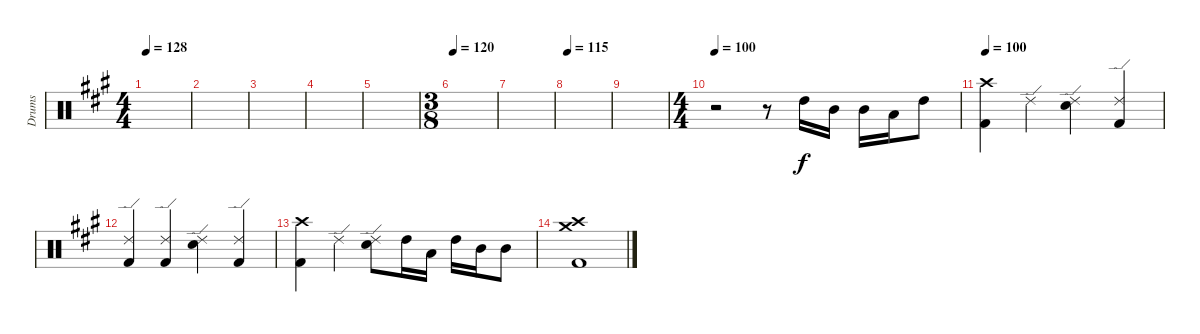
\track ("Drums" "Drums") {instrument percussion}
\staff {score}
\articulation defaults
\ts (4 4)
\tempo 128
\clef neutral
\ks a
|
|
|
|
|
\ts (3 8)
\tempo 128
\tempo 120
|
|
\tempo 115
|
|
\ts (4 4)
\tempo 70
\tempo 100
r.2 r.8 "High Tom (hit)".16 "Mid Tom (hit)".16 "Mid Tom (hit)".16 "Low Tom (hit)".16 "High Tom (hit)".8 |
\tempo 100
("Crash high (hit)" "Kick (hit) 2").4 "Ride (edge) 2".4 ("Ride (edge) 2" "Snare (hit) 2").4 ("Ride (edge) 2" "Kick (hit) 2").4 |
("Ride (edge) 2" "Kick (hit) 2").4 ("Ride (edge) 2" "Kick (hit) 2").4 ("Ride (edge) 2" "Snare (hit) 2").4 ("Ride (edge) 2" "Kick (hit) 2").4 |
("Crash high (hit)" "Kick (hit) 2").4 "Ride (edge) 2".4 ("Ride (edge) 2" "Snare (hit) 2").8 "High Tom (hit)".16 "Low Tom (hit)".16 "High Tom (hit)".16 "Mid Tom (hit)".16 "Mid Tom (hit)".8 |
("Crash medium (hit)" "Crash high (hit)" "Kick (hit) 2").1
